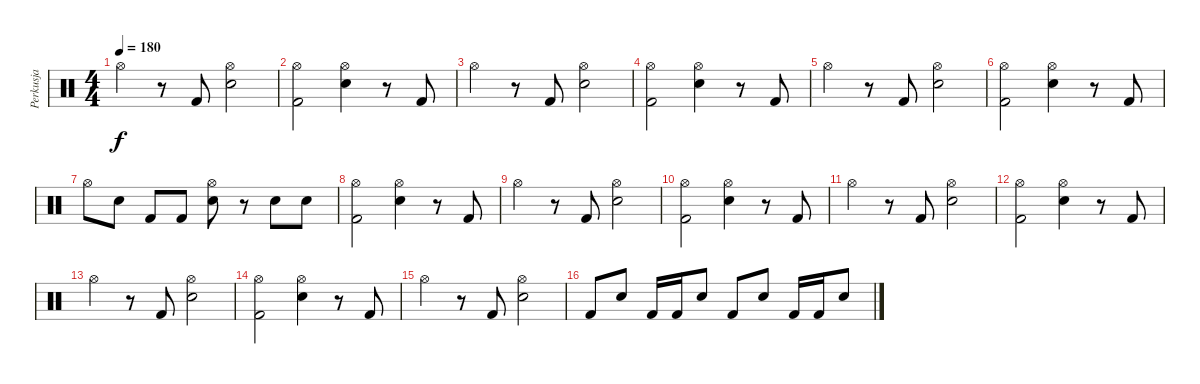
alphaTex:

\track ("Perkusja" "Perkusja") {instrument percussion}
\staff {score}
\articulation defaults
\ts (4 4)
\tempo 180
\clef neutral
\ks c "Hi-Hat (open)".4{dy f}
r.8 "Kick (hit) 2".8 ("Hi-Hat (open)" "Electric Snare (hit)").2 |
("Hi-Hat (open)" "Kick (hit) 2").2 ("Hi-Hat (open)" "Electric Snare (hit)").4 r.8 "Kick (hit) 2".8 |
"Hi-Hat (open)".4 r.8 "Kick (hit) 2".8 ("Hi-Hat (open)" "Electric Snare (hit)").2 |
("Hi-Hat (open)" "Kick (hit) 2").2 ("Hi-Hat (open)" "Electric Snare (hit)").4 r.8 "Kick (hit) 2".8 |
"Hi-Hat (open)".4 r.8 "Kick (hit) 2".8 ("Hi-Hat (open)" "Electric Snare (hit)").2 |
("Hi-Hat (open)" "Kick (hit) 2").2 ("Hi-Hat (open)" "Electric Snare (hit)").4 r.8 "Kick (hit) 2".8 |
"Hi-Hat (open)".8 "Electric Snare (hit)".8 "Kick (hit) 2".8 "Kick (hit) 2".8 ("Hi-Hat (open)" "Electric Snare (hit)").8 r.8 "Electric Snare (hit)".8 "Electric Snare (hit)".8 |
("Hi-Hat (open)" "Kick (hit) 2").2 ("Hi-Hat (open)" "Electric Snare (hit)").4 r.8 "Kick (hit) 2".8 |
"Hi-Hat (open)".4 r.8 "Kick (hit) 2".8 ("Hi-Hat (open)" "Electric Snare (hit)").2 |
("Hi-Hat (open)" "Kick (hit) 2").2 ("Hi-Hat (open)" "Electric Snare (hit)").4 r.8 "Kick (hit) 2".8 |
"Hi-Hat (open)".4 r.8 "Kick (hit) 2".8 ("Hi-Hat (open)" "Electric Snare (hit)").2 |
("Hi-Hat (open)" "Kick (hit) 2").2 ("Hi-Hat (open)" "Electric Snare (hit)").4 r.8 "Kick (hit) 2".8 |
"Hi-Hat (open)".4 r.8 "Kick (hit) 2".8 ("Hi-Hat (open)" "Electric Snare (hit)").2 |
("Hi-Hat (open)" "Kick (hit) 2").2 ("Hi-Hat (open)" "Electric Snare (hit)").4 r.8 "Kick (hit) 2".8 |
"Hi-Hat (open)".4 r.8 "Kick (hit) 2".8 ("Hi-Hat (open)" "Electric Snare (hit)").2 |
"Kick (hit) 2".8 "Electric Snare (hit)".8 "Kick (hit) 2".16 "Kick (hit) 2".16 "Electric Snare (hit)".8 "Kick (hit) 2".8 "Electric Snare (hit)".8 "Kick (hit) 2".16 "Kick (hit) 2".16 "Electric Snare (hit)".8
